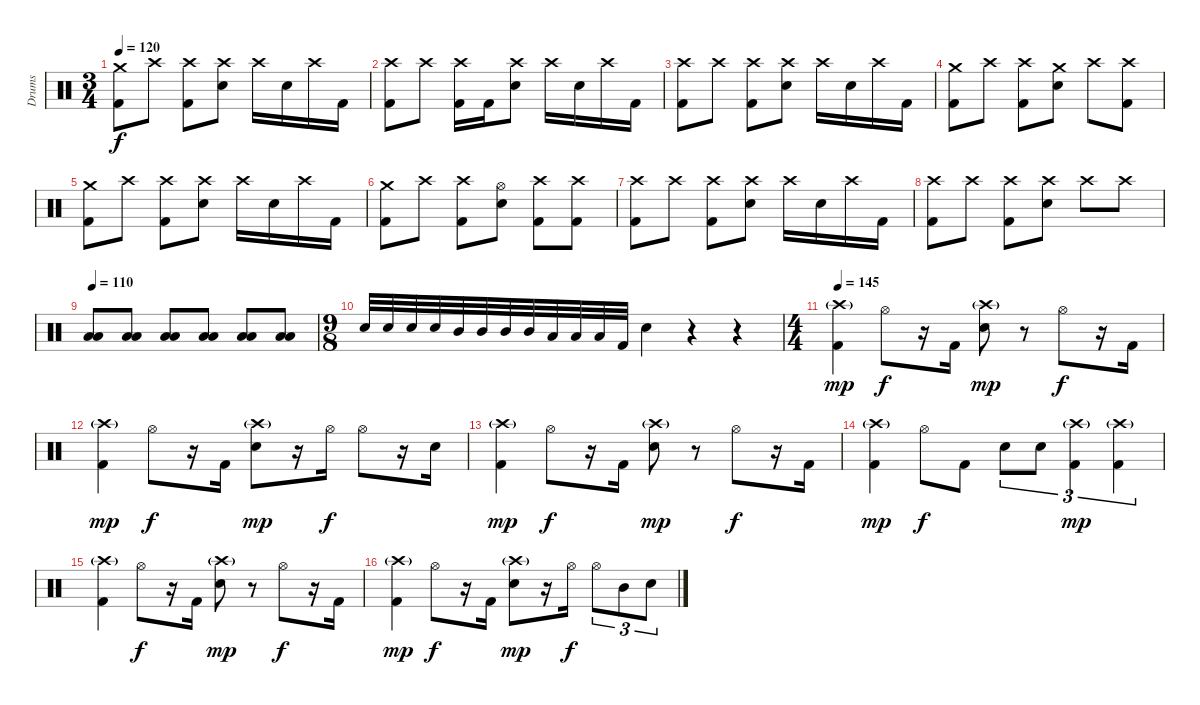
\track ("Drums" "Drums") {instrument percussion}
\staff {score}
\articulation defaults
\ts (3 4)
\tempo 120
\clef neutral
\ks c
("Crash medium (hit)" "Kick (hit) 2").8{dy f} "Crash high (hit)".8 ("Crash high (hit)" "Kick (hit) 2").8 ("Crash high (hit)" "Electric Snare (hit)").8 "Crash high (hit)".16 "Electric Snare (hit)".16 "Crash high (hit)".16 "Kick (hit) 2".16 |
("Crash high (hit)" "Kick (hit) 2").8 "Crash high (hit)".8 ("Crash high (hit)" "Kick (hit) 2").16 "Kick (hit) 2".16 ("Crash high (hit)" "Electric Snare (hit)").8 "Crash high (hit)".16 "Electric Snare (hit)".16 "Crash high (hit)".16 "Kick (hit) 2".16 |
("Crash high (hit)" "Kick (hit) 2").8 "Crash high (hit)".8 ("Crash high (hit)" "Kick (hit) 2").8 ("Crash high (hit)" "Electric Snare (hit)").8 "Crash high (hit)".16 "Electric Snare (hit)".16 "Crash high (hit)".16 "Kick (hit) 2".16 |
("Crash medium (hit)" "Kick (hit) 2").8 "Crash high (hit)".8 ("Crash high (hit)" "Kick (hit) 2").8 ("Crash medium (hit)" "Electric Snare (hit)").8 "Crash high (hit)".8 ("Crash high (hit)" "Kick (hit) 2").8 |
("Crash medium (hit)" "Kick (hit) 2").8 "Crash high (hit)".8 ("Crash high (hit)" "Kick (hit) 2").8 ("Crash high (hit)" "Electric Snare (hit)").8 "Crash high (hit)".16 "Electric Snare (hit)".16 "Crash high (hit)".16 "Kick (hit) 2".16 |
("Crash medium (hit)" "Kick (hit) 2").8 "Crash high (hit)".8 ("Crash high (hit)" "Kick (hit) 2").8 ("Hi-Hat (open)" "Electric Snare (hit)").8 ("Crash high (hit)" "Kick (hit) 2").8 ("Crash high (hit)" "Kick (hit) 2").8 |
("Crash high (hit)" "Kick (hit) 2").8 "Crash high (hit)".8 ("Crash high (hit)" "Kick (hit) 2").8 ("Crash high (hit)" "Electric Snare (hit)").8 "Crash high (hit)".16 "Electric Snare (hit)".16 "Crash high (hit)".16 "Kick (hit) 2".16 |
("Crash high (hit)" "Kick (hit) 2").8 "Crash high (hit)".8 ("Crash high (hit)" "Kick (hit) 2").8 ("Crash high (hit)" "Electric Snare (hit)").8 "Crash high (hit)".8 "Crash high (hit)".8 |
\tempo 110
("Low Tom (hit)" "Low Floor Tom (hit)").8 ("Low Tom (hit)" "Low Floor Tom (hit)").8 ("Low Tom (hit)" "Low Floor Tom (hit)").8 ("Low Tom (hit)" "Low Floor Tom (hit)").8 ("Low Tom (hit)" "Low Floor Tom (hit)").8 ("Low Tom (hit)" "Low Floor Tom (hit)").8 |
\ts (9 8)
"Electric Snare (hit)".32 "Electric Snare (hit)".32 "Electric Snare (hit)".32 "Electric Snare (hit)".32 "Mid Tom (hit)".32 "Mid Tom (hit)".32 "Mid Tom (hit)".32 "Mid Tom (hit)".32 "Low Tom (hit)".32 "Low Tom (hit)".32 "Low Tom (hit)".32 "Kick (hit) 2".32 "Electric Snare (hit)".4 r.4 r.4 |
\ts (4 4)
\tempo 145
("Crash high (hit)"{g} "Kick (hit) 2").4{dy mp} "Hi-Hat (open)".8{dy f} r.16 "Kick (hit) 2".16 ("Crash high (hit)"{g} "Electric Snare (hit)").8{dy mp} r.8 "Hi-Hat (open)".8{dy f} r.16 "Kick (hit) 2".16 |
("Crash high (hit)"{g} "Kick (hit) 2").4{dy mp} "Hi-Hat (open)".8{dy f} r.16 "Kick (hit) 2".16 ("Crash high (hit)"{g} "Electric Snare (hit)").8{dy mp} r.16 "Hi-Hat (open)".16{dy f} "Hi-Hat (open)".8 r.16 "Electric Snare (hit)".16 |
("Crash high (hit)"{g} "Kick (hit) 2").4{dy mp} "Hi-Hat (open)".8{dy f} r.16 "Kick (hit) 2".16 ("Crash high (hit)"{g} "Electric Snare (hit)").8{dy mp} r.8 "Hi-Hat (open)".8{dy f} r.16 "Kick (hit) 2".16 |
("Crash high (hit)"{g} "Kick (hit) 2").4{dy mp} "Hi-Hat (open)".8{dy f} "Kick (hit) 2".8 "Electric Snare (hit)".8{tu (3 2)} "Electric Snare (hit)".8{tu (3 2)} ("Crash high (hit)"{g} "Kick (hit) 2").4{tu (3 2) dy mp} ("Crash high (hit)"{g} "Kick (hit) 2").4{tu (3 2)} |
("Crash high (hit)"{g} "Kick (hit) 2").4 "Hi-Hat (open)".8{dy f} r.16 "Kick (hit) 2".16 ("Crash high (hit)"{g} "Electric Snare (hit)").8{dy mp} r.8 "Hi-Hat (open)".8{dy f} r.16 "Kick (hit) 2".16 |
("Crash high (hit)"{g} "Kick (hit) 2").4{dy mp} "Hi-Hat (open)".8{dy f} r.16 "Kick (hit) 2".16 ("Crash high (hit)"{g} "Electric Snare (hit)").8{dy mp} r.16 "Hi-Hat (open)".16{dy f} "Hi-Hat (open)".8{tu (3 2)} "Mid Tom (hit)".8{tu (3 2)} "Electric Snare (hit)".8{tu (3 2)}
